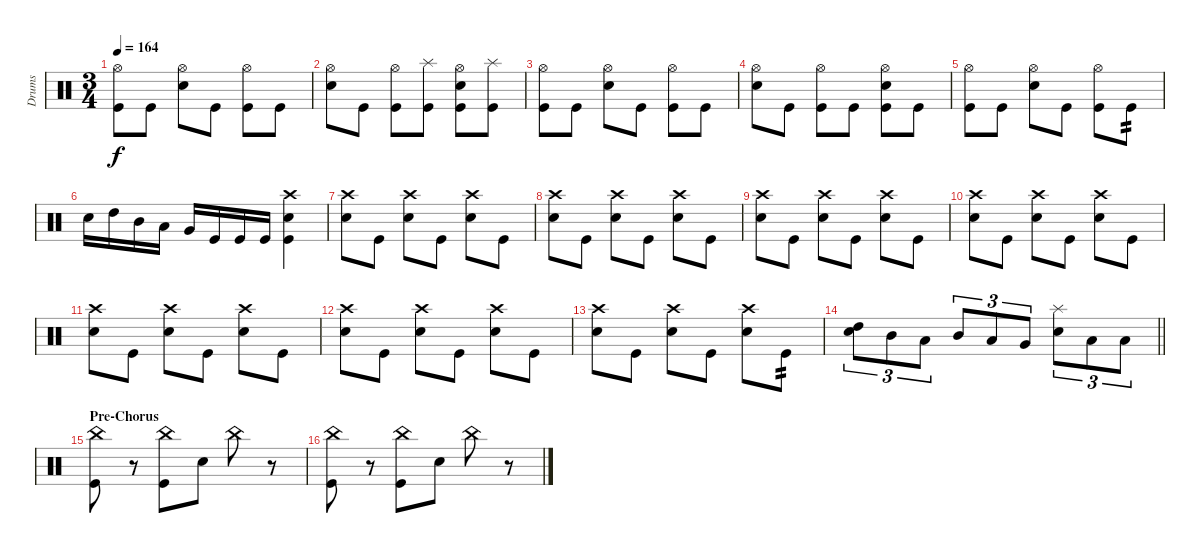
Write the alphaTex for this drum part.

\track ("Drums" "Drums") {instrument percussion}
\staff {score}
\articulation defaults
\ts (3 4)
\tempo 164
\clef neutral
\ks c
("Hi-Hat (open)" "Kick (hit)").8{dy f} "Kick (hit)".8 ("Hi-Hat (open)" "Snare (hit) 2").8 "Kick (hit)".8 ("Hi-Hat (open)" "Kick (hit)").8 "Kick (hit)".8 |
("Hi-Hat (open)" "Snare (hit) 2").8 "Kick (hit)".8 ("Hi-Hat (open)" "Kick (hit)").8 ("Splash (hit)" "Kick (hit)").8 ("Hi-Hat (open)" "Snare (hit) 2" "Kick (hit)").8 ("Splash (hit)" "Kick (hit)").8 |
("Hi-Hat (open)" "Kick (hit)").8 "Kick (hit)".8 ("Hi-Hat (open)" "Snare (hit) 2").8 "Kick (hit)".8 ("Hi-Hat (open)" "Kick (hit)").8 "Kick (hit)".8 |
("Hi-Hat (open)" "Snare (hit) 2").8 "Kick (hit)".8 ("Hi-Hat (open)" "Kick (hit)").8 "Kick (hit)".8 ("Hi-Hat (open)" "Snare (hit) 2" "Kick (hit)").8 "Kick (hit)".8 |
("Hi-Hat (open)" "Kick (hit)").8 "Kick (hit)".8 ("Hi-Hat (open)" "Snare (hit) 2").8 "Kick (hit)".8 ("Hi-Hat (open)" "Kick (hit)").8 "Kick (hit)".8{tp 2} |
"Snare (hit) 2".16 "High Tom (hit)".16 "Mid Tom (hit)".16 "Low Tom (hit)".16 "Very Low Tom (hit)".16 "Kick (hit)".16 "Kick (hit)".16 "Kick (hit)".16 ("Kick (hit)" "Crash high (hit)" "Snare (hit) 2").4 |
("Crash high (hit)" "Snare (hit) 2").8 "Kick (hit)".8 ("Crash high (hit)" "Snare (hit) 2").8 "Kick (hit)".8 ("Crash high (hit)" "Snare (hit) 2").8 "Kick (hit)".8 |
("Crash high (hit)" "Snare (hit) 2").8 "Kick (hit)".8 ("Crash high (hit)" "Snare (hit) 2").8 "Kick (hit)".8 ("Crash high (hit)" "Snare (hit) 2").8 "Kick (hit)".8 |
("Crash high (hit)" "Snare (hit) 2").8 "Kick (hit)".8 ("Crash high (hit)" "Snare (hit) 2").8 "Kick (hit)".8 ("Crash high (hit)" "Snare (hit) 2").8 "Kick (hit)".8 |
("Crash high (hit)" "Snare (hit) 2").8 "Kick (hit)".8 ("Crash high (hit)" "Snare (hit) 2").8 "Kick (hit)".8 ("Crash high (hit)" "Snare (hit) 2").8 "Kick (hit)".8 |
("Crash high (hit)" "Snare (hit) 2").8 "Kick (hit)".8 ("Crash high (hit)" "Snare (hit) 2").8 "Kick (hit)".8 ("Crash high (hit)" "Snare (hit) 2").8 "Kick (hit)".8 |
("Crash high (hit)" "Snare (hit) 2").8 "Kick (hit)".8 ("Crash high (hit)" "Snare (hit) 2").8 "Kick (hit)".8 ("Crash high (hit)" "Snare (hit) 2").8 "Kick (hit)".8 |
("Crash high (hit)" "Snare (hit) 2").8 "Kick (hit)".8 ("Crash high (hit)" "Snare (hit) 2").8 "Kick (hit)".8 ("Crash high (hit)" "Snare (hit) 2").8 "Kick (hit)".8{tp 2} |
\barLineRight lightlight
("Snare (hit) 2" "High Tom (hit)").8{tu (3 2)} "Mid Tom (hit)".8{tu (3 2)} "Low Tom (hit)".8{tu (3 2)} "Mid Tom (hit)".8{tu (3 2)} "Low Tom (hit)".8{tu (3 2)} "Very Low Tom (hit)".8{tu (3 2)} ("Splash (hit)" "Snare (hit) 2").8{tu (3 2)} "Low Floor Tom (hit)".8{tu (3 2)} "Low Floor Tom (hit)".8{tu (3 2)} |
\section ("" "Pre-Chorus")
("China (hit)" "Kick (hit)").8 r.8 ("China (hit)" "Kick (hit)").8 "Snare (hit) 2".8 "China (hit)".8 r.8 |
("China (hit)" "Kick (hit)").8 r.8 ("China (hit)" "Kick (hit)").8 "Snare (hit) 2".8 "China (hit)".8 r.8
